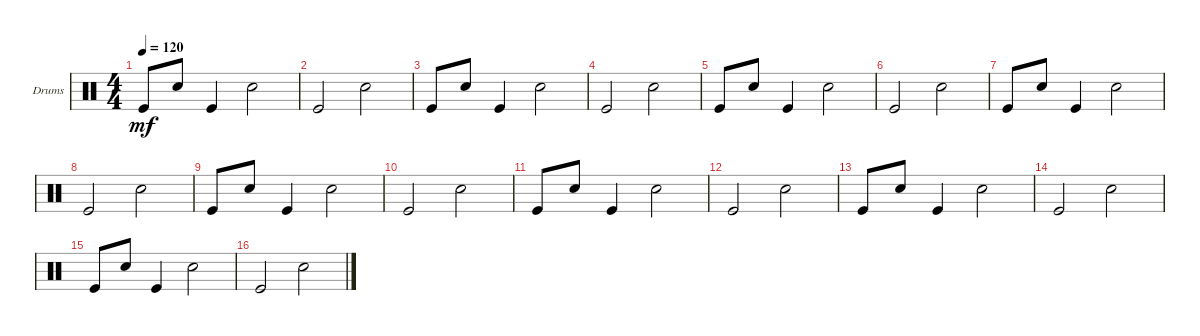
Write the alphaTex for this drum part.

\defaultSystemsLayout 4
\bracketExtendMode groupsimilarinstruments
\firstSystemTrackNameOrientation horizontal
\otherSystemsTrackNameOrientation horizontal
\track ("Drumkit" "Drums") {instrument percussion}
\staff {score}
\articulation defaults
\ts (4 4)
\tempo 120
\clef neutral
\scale
0.333333
\ks c "Kick (hit)".8{dy mf} "Snare (hit) 2".8 "Kick (hit)".4 "Snare (hit) 2".2
|
\scale
0.333333 "Kick (hit)".2 "Snare (hit) 2".2 |
\scale
0.333333 "Kick (hit)".8 "Snare (hit) 2".8 "Kick (hit)".4 "Snare (hit) 2".2 |
\scale
0.333333 "Kick (hit)".2 "Snare (hit) 2".2 |
\scale
0.333333 "Kick (hit)".8 "Snare (hit) 2".8 "Kick (hit)".4 "Snare (hit) 2".2 |
\scale
0.333333 "Kick (hit)".2 "Snare (hit) 2".2 |
\scale
0.333333 "Kick (hit)".8 "Snare (hit) 2".8 "Kick (hit)".4 "Snare (hit) 2".2 |
\scale
0.333333 "Kick (hit)".2 "Snare (hit) 2".2 |
\scale
0.333333 "Kick (hit)".8 "Snare (hit) 2".8 "Kick (hit)".4 "Snare (hit) 2".2 |
\scale
0.333333 "Kick (hit)".2 "Snare (hit) 2".2 |
\scale
0.333333 "Kick (hit)".8 "Snare (hit) 2".8 "Kick (hit)".4 "Snare (hit) 2".2 |
\scale
0.333333 "Kick (hit)".2 "Snare (hit) 2".2 |
\scale
0.333333 "Kick (hit)".8 "Snare (hit) 2".8 "Kick (hit)".4 "Snare (hit) 2".2 |
\scale
0.333333 "Kick (hit)".2 "Snare (hit) 2".2 |
\scale
0.333333 "Kick (hit)".8 "Snare (hit) 2".8 "Kick (hit)".4 "Snare (hit) 2".2 |
\scale
0.333333 "Kick (hit)".2 "Snare (hit) 2".2
